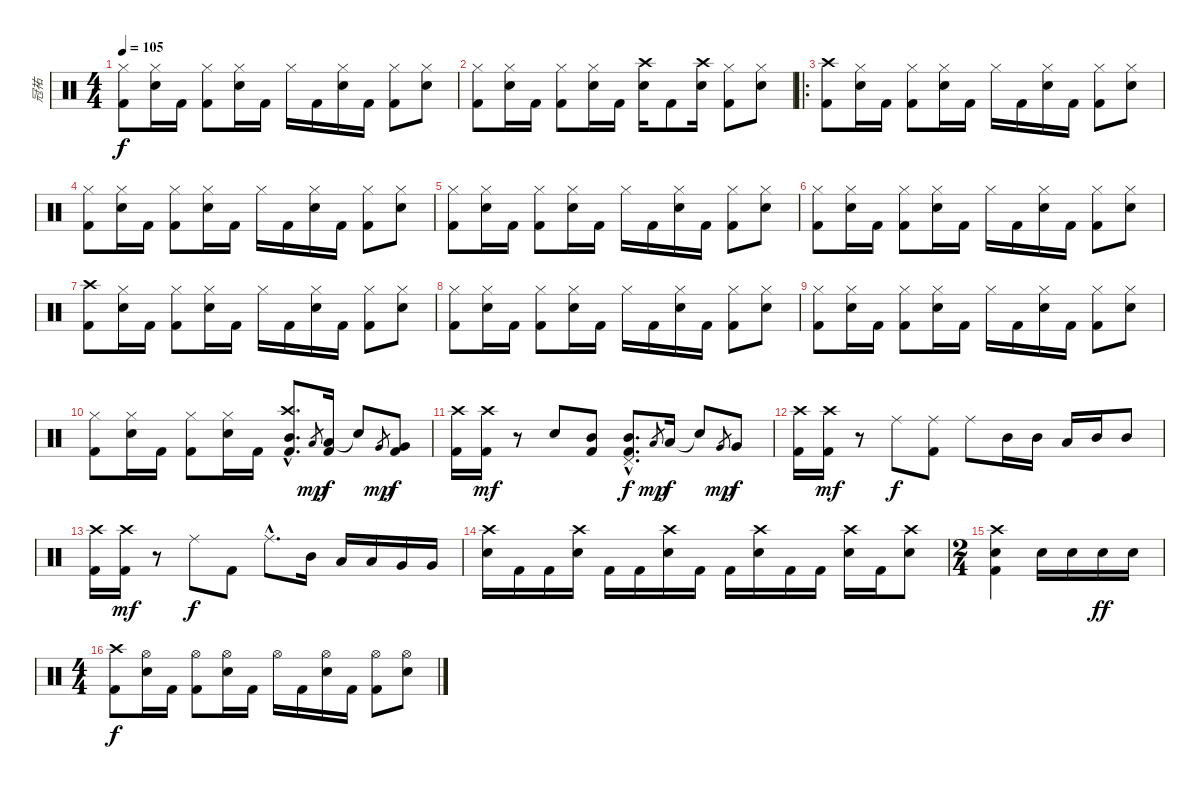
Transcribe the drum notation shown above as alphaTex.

\track ("冠祐" "冠祐") {instrument percussion}
\staff {score}
\articulation defaults
\ts (4 4)
\tempo 105
\clef neutral
\ks c
("Hi-Hat (closed)" "Kick (hit) 2").8{dy f} ("Hi-Hat (closed)" "Electric Snare (hit)").16 "Kick (hit) 2".16 ("Hi-Hat (closed)" "Kick (hit) 2").8 ("Hi-Hat (closed)" "Electric Snare (hit)").16 "Kick (hit) 2".16 "Hi-Hat (closed)".16 "Kick (hit) 2".16 ("Hi-Hat (closed)" "Electric Snare (hit)").16 "Kick (hit) 2".16 ("Hi-Hat (closed)" "Kick (hit) 2").8 ("Hi-Hat (closed)" "Electric Snare (hit)").8 |
("Hi-Hat (closed)" "Kick (hit) 2").8 ("Hi-Hat (closed)" "Electric Snare (hit)").16 "Kick (hit) 2".16 ("Hi-Hat (closed)" "Kick (hit) 2").8 ("Hi-Hat (closed)" "Electric Snare (hit)").16 "Kick (hit) 2".16 ("Crash high (hit)" "Electric Snare (hit)").16 "Kick (hit) 2".8 ("Crash high (hit)" "Electric Snare (hit)").16 ("Hi-Hat (closed)" "Kick (hit) 2").8 ("Hi-Hat (closed)" "Electric Snare (hit)").8 |
\ro
("Crash high (hit)" "Kick (hit) 2").8 ("Hi-Hat (closed)" "Electric Snare (hit)").16 "Kick (hit) 2".16 ("Hi-Hat (closed)" "Kick (hit) 2").8 ("Hi-Hat (closed)" "Electric Snare (hit)").16 "Kick (hit) 2".16 "Hi-Hat (closed)".16 "Kick (hit) 2".16 ("Hi-Hat (closed)" "Electric Snare (hit)").16 "Kick (hit) 2".16 ("Hi-Hat (closed)" "Kick (hit) 2").8 ("Hi-Hat (closed)" "Electric Snare (hit)").8 |
("Hi-Hat (closed)" "Kick (hit) 2").8 ("Hi-Hat (closed)" "Electric Snare (hit)").16 "Kick (hit) 2".16 ("Hi-Hat (closed)" "Kick (hit) 2").8 ("Hi-Hat (closed)" "Electric Snare (hit)").16 "Kick (hit) 2".16 "Hi-Hat (closed)".16 "Kick (hit) 2".16 ("Hi-Hat (closed)" "Electric Snare (hit)").16 "Kick (hit) 2".16 ("Hi-Hat (closed)" "Kick (hit) 2").8 ("Hi-Hat (closed)" "Electric Snare (hit)").8 |
("Hi-Hat (closed)" "Kick (hit) 2").8 ("Hi-Hat (closed)" "Electric Snare (hit)").16 "Kick (hit) 2".16 ("Hi-Hat (closed)" "Kick (hit) 2").8 ("Hi-Hat (closed)" "Electric Snare (hit)").16 "Kick (hit) 2".16 "Hi-Hat (closed)".16 "Kick (hit) 2".16 ("Hi-Hat (closed)" "Electric Snare (hit)").16 "Kick (hit) 2".16 ("Hi-Hat (closed)" "Kick (hit) 2").8 ("Hi-Hat (closed)" "Electric Snare (hit)").8 |
("Hi-Hat (closed)" "Kick (hit) 2").8 ("Hi-Hat (closed)" "Electric Snare (hit)").16 "Kick (hit) 2".16 ("Hi-Hat (closed)" "Kick (hit) 2").8 ("Hi-Hat (closed)" "Electric Snare (hit)").16 "Kick (hit) 2".16 "Hi-Hat (closed)".16 "Kick (hit) 2".16 ("Hi-Hat (closed)" "Electric Snare (hit)").16 "Kick (hit) 2".16 ("Hi-Hat (closed)" "Kick (hit) 2").8 ("Hi-Hat (closed)" "Electric Snare (hit)").8 |
("Crash high (hit)" "Kick (hit) 2").8 ("Hi-Hat (closed)" "Electric Snare (hit)").16 "Kick (hit) 2".16 ("Hi-Hat (closed)" "Kick (hit) 2").8 ("Hi-Hat (closed)" "Electric Snare (hit)").16 "Kick (hit) 2".16 "Hi-Hat (closed)".16 "Kick (hit) 2".16 ("Hi-Hat (closed)" "Electric Snare (hit)").16 "Kick (hit) 2".16 ("Hi-Hat (closed)" "Kick (hit) 2").8 ("Hi-Hat (closed)" "Electric Snare (hit)").8 |
("Hi-Hat (closed)" "Kick (hit) 2").8 ("Hi-Hat (closed)" "Electric Snare (hit)").16 "Kick (hit) 2".16 ("Hi-Hat (closed)" "Kick (hit) 2").8 ("Hi-Hat (closed)" "Electric Snare (hit)").16 "Kick (hit) 2".16 "Hi-Hat (closed)".16 "Kick (hit) 2".16 ("Hi-Hat (closed)" "Electric Snare (hit)").16 "Kick (hit) 2".16 ("Hi-Hat (closed)" "Kick (hit) 2").8 ("Hi-Hat (closed)" "Electric Snare (hit)").8 |
("Hi-Hat (closed)" "Kick (hit) 2").8 ("Hi-Hat (closed)" "Electric Snare (hit)").16 "Kick (hit) 2".16 ("Hi-Hat (closed)" "Kick (hit) 2").8 ("Hi-Hat (closed)" "Electric Snare (hit)").16 "Kick (hit) 2".16 "Hi-Hat (closed)".16 "Kick (hit) 2".16 ("Hi-Hat (closed)" "Electric Snare (hit)").16 "Kick (hit) 2".16 ("Hi-Hat (closed)" "Kick (hit) 2").8 ("Hi-Hat (closed)" "Electric Snare (hit)").8 |
("Hi-Hat (closed)" "Kick (hit) 2").8 ("Hi-Hat (closed)" "Electric Snare (hit)").16 "Kick (hit) 2".16 ("Hi-Hat (closed)" "Kick (hit) 2").8 ("Hi-Hat (closed)" "Electric Snare (hit)").16 "Kick (hit) 2".16 ("Crash high (hit)"{hac} "Mid Tom (hit)" "Kick (hit) 2"{hac}).8{d} "Low Tom (hit)".8{gr dy mp} ("Low Tom (hit)" "Kick (hit) 2").16{dy f} "Snare (hit)"{t}.8 "Very Low Tom (hit)".8{gr dy mp} ("Very Low Tom (hit)" "Kick (hit) 2").8{dy f} |
("Crash high (hit)" "Kick (hit) 2").16 ("Crash high (hit)" "Kick (hit) 2").16{dy mf} r.8 "Electric Snare (hit)".8 ("Mid Tom (hit)" "Kick (hit) 2").8 ("Pedal Hi-Hat (hit)"{hac} "Mid Tom (hit)" "Kick (hit) 2"{hac}).8{d dy f} "Low Tom (hit)".8{gr dy mp} "Low Tom (hit)".16{dy f} "Snare (hit)"{t}.8 "Very Low Tom (hit)".8{gr dy mp} "Very Low Tom (hit)".8{dy f} |
("Crash high (hit)" "Kick (hit) 2").16 ("Crash high (hit)" "Kick (hit) 2").16{dy mf} r.8 "Ride (middle)".8{dy f} ("Ride (middle)" "Kick (hit) 2").8 "Ride (middle)".8 "Mid Tom (hit)".16 "Mid Tom (hit)".16 "Low Tom (hit)".16 "Mid Tom (hit)".16 "Mid Tom (hit)".8 |
("Crash high (hit)" "Kick (hit) 2").16 ("Crash high (hit)" "Kick (hit) 2").16{dy mf} r.8 "Ride (middle)".8{dy f} "Kick (hit) 2".8 "Ride (middle)"{hac}.8{d} "Mid Tom (hit)".16 "Low Tom (hit)".16 "Low Tom (hit)".16 "Very Low Tom (hit)".16 "Very Low Tom (hit)".16 |
("Crash high (hit)" "Electric Snare (hit)").16 "Kick (hit) 2".16 "Kick (hit) 2".16 ("Crash high (hit)" "Electric Snare (hit)").16 "Kick (hit) 2".16 "Kick (hit) 2".16 ("Crash high (hit)" "Electric Snare (hit)").16 "Kick (hit) 2".16 "Kick (hit) 2".16 ("Crash high (hit)" "Electric Snare (hit)").16 "Kick (hit) 2".16 "Kick (hit) 2".16 ("Crash high (hit)" "Electric Snare (hit)").16 "Kick (hit) 2".16 ("Crash high (hit)" "Electric Snare (hit)").8 |
\ts (2 4)
("Crash high (hit)" "Electric Snare (hit)" "Kick (hit) 2").4 "Electric Snare (hit)".16 "Electric Snare (hit)".16 "Electric Snare (hit)".16{dy ff} "Electric Snare (hit)".16 |
\ts (4 4)
("Crash high (hit)" "Kick (hit) 2").8{dy f} ("Hi-Hat (open)" "Electric Snare (hit)").16 "Kick (hit) 2".16 ("Hi-Hat (open)" "Kick (hit) 2").8 ("Hi-Hat (open)" "Electric Snare (hit)").16 "Kick (hit) 2".16 "Hi-Hat (open)".16 "Kick (hit) 2".16 ("Hi-Hat (open)" "Electric Snare (hit)").16 "Kick (hit) 2".16 ("Hi-Hat (open)" "Kick (hit) 2").8 ("Hi-Hat (open)" "Electric Snare (hit)").8
